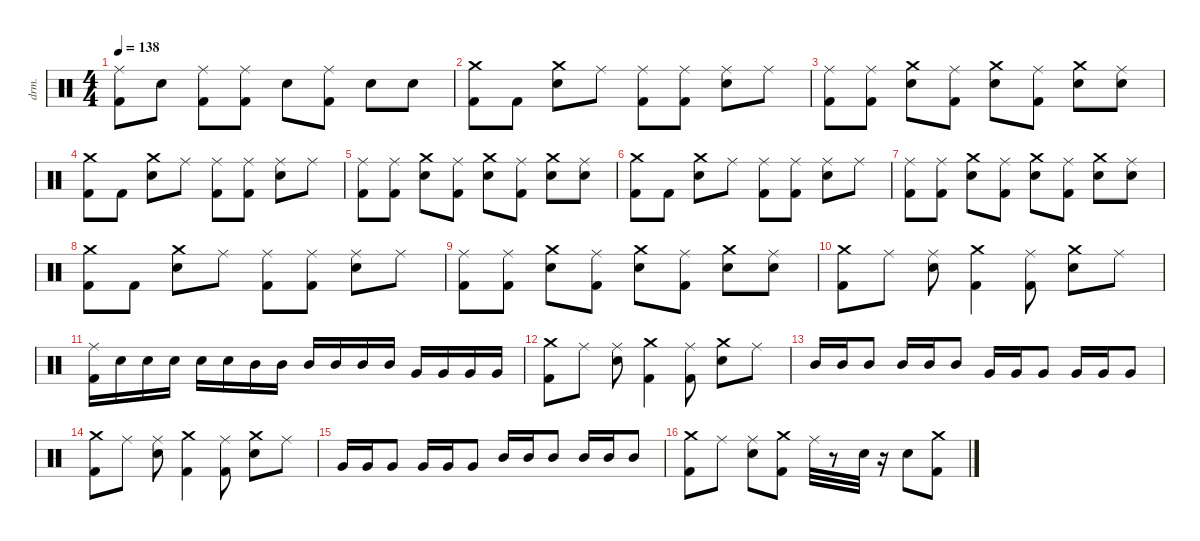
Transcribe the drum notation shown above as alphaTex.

\defaultSystemsLayout 4
\hideDynamics
\bracketExtendMode nobrackets
\otherSystemsTrackNameOrientation horizontal
\track ("Alex Van Halen " "drm.") {instrument percussion}
\staff {score}
\articulation defaults
\ts (4 4)
\tempo 138
\clef neutral
\ks c
("Kick (hit) 2" "Ride (middle)").8{dy ff beam Down} "Snare (hit) 2".8{dy fff beam Down} ("Kick (hit) 2" "Ride (middle)").8{dy ff beam Down} ("Kick (hit) 2" "Ride (middle)").8{dy f beam Down} "Snare (hit) 2".8{dy fff beam Down} ("Kick (hit) 2" "Ride (middle)").8{dy f beam Down} "Snare (hit) 2".8{dy mf beam Down} "Snare (hit) 2".8{dy fff beam Down} |
("Kick (hit) 2" "Crash medium (hit)").8{dy ff beam Down} "Kick (hit) 2".8{dy f beam Down} ("Snare (hit) 2" "Crash medium (hit)").8{dy fff beam Down} "Ride (middle)".8{dy f beam Down} ("Kick (hit) 2" "Ride (middle)").8{dy ff beam Down} ("Kick (hit) 2" "Ride (middle)").8{dy f beam Down} ("Snare (hit) 2" "Ride (middle)").8{dy fff beam Down} "Ride (middle)".8{dy f beam Down} |
("Kick (hit) 2" "Ride (middle)").8{dy ff beam Down} ("Kick (hit) 2" "Ride (middle)").8{dy f beam Down} ("Snare (hit) 2" "Crash medium (hit)").8{dy fff beam Down} ("Kick (hit) 2" "Ride (middle)").8{dy ff beam Down} ("Snare (hit) 2" "Crash medium (hit)").8{dy fff beam Down} ("Kick (hit) 2" "Ride (middle)").8{dy ff beam Down} ("Snare (hit) 2" "Crash medium (hit)").8{dy mf beam Down} ("Snare (hit) 2" "Ride (middle)").8{dy fff beam Down} |
("Kick (hit) 2" "Crash medium (hit)").8{dy ff beam Down} "Kick (hit) 2".8{dy f beam Down} ("Snare (hit) 2" "Crash medium (hit)").8{dy fff beam Down} "Ride (middle)".8{dy f beam Down} ("Kick (hit) 2" "Ride (middle)").8{dy ff beam Down} ("Kick (hit) 2" "Ride (middle)").8{dy f beam Down} ("Snare (hit) 2" "Ride (middle)").8{dy fff beam Down} "Ride (middle)".8{dy f beam Down} |
("Kick (hit) 2" "Ride (middle)").8{dy ff beam Down} ("Kick (hit) 2" "Ride (middle)").8{dy f beam Down} ("Snare (hit) 2" "Crash medium (hit)").8{dy fff beam Down} ("Kick (hit) 2" "Ride (middle)").8{dy ff beam Down} ("Snare (hit) 2" "Crash medium (hit)").8{dy fff beam Down} ("Kick (hit) 2" "Ride (middle)").8{dy ff beam Down} ("Snare (hit) 2" "Crash medium (hit)").8{dy mf beam Down} ("Snare (hit) 2" "Ride (middle)").8{dy fff beam Down} |
("Kick (hit) 2" "Crash medium (hit)").8{dy ff beam Down} "Kick (hit) 2".8{dy f beam Down} ("Snare (hit) 2" "Crash medium (hit)").8{dy fff beam Down} "Ride (middle)".8{dy f beam Down} ("Kick (hit) 2" "Ride (middle)").8{dy ff beam Down} ("Kick (hit) 2" "Ride (middle)").8{dy f beam Down} ("Snare (hit) 2" "Ride (middle)").8{dy fff beam Down} "Ride (middle)".8{dy f beam Down} |
("Kick (hit) 2" "Ride (middle)").8{dy ff beam Down} ("Kick (hit) 2" "Ride (middle)").8{dy f beam Down} ("Snare (hit) 2" "Crash medium (hit)").8{dy fff beam Down} ("Kick (hit) 2" "Ride (middle)").8{dy ff beam Down} ("Snare (hit) 2" "Crash medium (hit)").8{dy fff beam Down} ("Kick (hit) 2" "Ride (middle)").8{dy ff beam Down} ("Snare (hit) 2" "Crash medium (hit)").8{dy mf beam Down} ("Snare (hit) 2" "Ride (middle)").8{dy fff beam Down} |
("Kick (hit) 2" "Crash medium (hit)").8{dy ff beam Down} "Kick (hit) 2".8{dy f beam Down} ("Snare (hit) 2" "Crash medium (hit)").8{dy fff beam Down} "Ride (middle)".8{dy f beam Down} ("Kick (hit) 2" "Ride (middle)").8{dy ff beam Down} ("Kick (hit) 2" "Ride (middle)").8{dy f beam Down} ("Snare (hit) 2" "Ride (middle)").8{dy fff beam Down} "Ride (middle)".8{dy f beam Down} |
("Kick (hit) 2" "Ride (middle)").8{dy ff beam Down} ("Kick (hit) 2" "Ride (middle)").8{dy f beam Down} ("Snare (hit) 2" "Crash medium (hit)").8{dy fff beam Down} ("Kick (hit) 2" "Ride (middle)").8{dy ff beam Down} ("Snare (hit) 2" "Crash medium (hit)").8{dy fff beam Down} ("Kick (hit) 2" "Ride (middle)").8{dy ff beam Down} ("Snare (hit) 2" "Crash medium (hit)").8{dy mf beam Down} ("Snare (hit) 2" "Ride (middle)").8{dy fff beam Down} |
("Kick (hit) 2" "Crash medium (hit)").8{dy ff beam Down} "Ride (middle)".8{dy f beam Down} ("Snare (hit) 2" "Ride (middle)").8{dy fff beam Down} ("Kick (hit) 2" "Crash medium (hit)").4{dy ff beam Down} ("Kick (hit) 2" "Ride (middle)").8{dy f beam Down} ("Snare (hit) 2" "Crash medium (hit)").8{dy fff beam Down} "Ride (middle)".8{dy f beam Down} |
("Kick (hit) 2" "Ride (middle)").16{dy ff beam Down} "Snare (hit) 2".16{dy f beam Down} "Snare (hit) 2".16{dy ff beam Down} "Snare (hit) 2".16{beam Down} "Snare (hit) 2".16{beam Down} "Snare (hit) 2".16{dy fff beam Down} "Mid Tom (hit)".16{dy f beam Down} "Mid Tom (hit)".16{beam Down} "Mid Tom (hit)".16{dy ff beam Up} "Mid Tom (hit)".16{beam Up} "Mid Tom (hit)".16{beam Up} "Mid Tom (hit)".16{dy fff beam Up} "Very Low Tom (hit)".16{dy f beam Up} "Very Low Tom (hit)".16{beam Up} "Very Low Tom (hit)".16{dy ff beam Up} "Very Low Tom (hit)".16{dy fff beam Up} |
("Kick (hit) 2" "Crash medium (hit)").8{dy ff beam Down} "Ride (middle)".8{dy f beam Down} ("Snare (hit) 2" "Ride (middle)").8{dy fff beam Down} ("Kick (hit) 2" "Crash medium (hit)").4{dy ff beam Down} ("Kick (hit) 2" "Ride (middle)").8{dy f beam Down} ("Snare (hit) 2" "Crash medium (hit)").8{dy fff beam Down} "Ride (middle)".8{dy f beam Down} |
"Mid Tom (hit)".16{dy ff beam Up} "Mid Tom (hit)".16{dy mf beam Up} "Mid Tom (hit)".8{dy fff beam Up} "Mid Tom (hit)".16{dy ff beam Up} "Mid Tom (hit)".16{dy mf beam Up} "Mid Tom (hit)".8{dy fff beam Up} "Very Low Tom (hit)".16{dy ff beam Up} "Very Low Tom (hit)".16{dy mf beam Up} "Very Low Tom (hit)".8{dy fff beam Up} "Very Low Tom (hit)".16{dy ff beam Up} "Very Low Tom (hit)".16{dy mf beam Up} "Very Low Tom (hit)".8{dy fff beam Up} |
("Kick (hit) 2" "Crash medium (hit)").8{dy ff beam Down} "Ride (middle)".8{dy f beam Down} ("Snare (hit) 2" "Ride (middle)").8{dy fff beam Down} ("Kick (hit) 2" "Crash medium (hit)").4{dy ff beam Down} ("Kick (hit) 2" "Ride (middle)").8{dy f beam Down} ("Snare (hit) 2" "Crash medium (hit)").8{dy fff beam Down} "Ride (middle)".8{dy f beam Down} |
"Very Low Tom (hit)".16{dy ff beam Up} "Very Low Tom (hit)".16{dy mf beam Up} "Very Low Tom (hit)".8{dy fff beam Up} "Very Low Tom (hit)".16{dy ff beam Up} "Very Low Tom (hit)".16{dy mf beam Up} "Very Low Tom (hit)".8{dy fff beam Up} "Mid Tom (hit)".16{dy ff beam Up} "Mid Tom (hit)".16{dy mf beam Up} "Mid Tom (hit)".8{dy fff beam Up} "Mid Tom (hit)".16{dy ff beam Up} "Mid Tom (hit)".16{dy mf beam Up} "Mid Tom (hit)".8{dy fff beam Up} |
("Kick (hit) 2" "Crash medium (hit)").8{dy ff beam Down} "Ride (middle)".8{dy f beam Down} ("Snare (hit) 2" "Ride (middle)").8{dy fff beam Down} ("Kick (hit) 2" "Crash medium (hit)").8{dy ff beam Down} "Ride (middle)".32{dy f beam Down} r.8{beam Down} "Snare (hit) 2".32{dy fff beam Down} r.16{beam Down} "Snare (hit) 2".8{beam Down} ("Crash medium (hit)" "Kick (hit) 2").8{beam Down}
